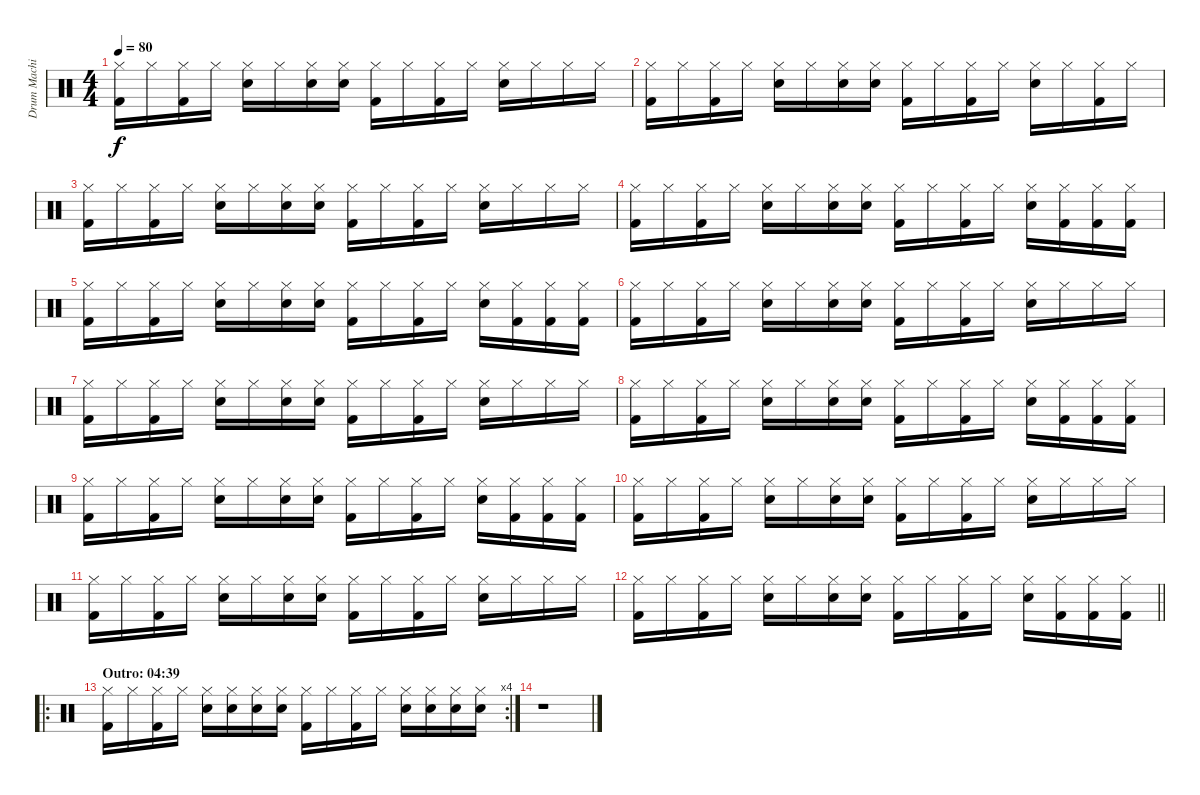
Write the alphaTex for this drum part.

\track ("Drum Machine" "Drum Machi") {instrument percussion}
\staff {score}
\articulation defaults
\ts (4 4)
\tempo 80
\clef neutral
\ks c
("Hi-Hat (closed)" "Kick (hit) 2").16{dy f} "Hi-Hat (closed)".16 ("Hi-Hat (closed)" "Kick (hit) 2").16 "Hi-Hat (closed)".16 ("Hi-Hat (closed)" "Electric Snare (hit)").16 "Hi-Hat (closed)".16 ("Hi-Hat (closed)" "Electric Snare (hit)").16 ("Hi-Hat (closed)" "Electric Snare (hit)").16 ("Hi-Hat (closed)" "Kick (hit) 2").16 "Hi-Hat (closed)".16 ("Hi-Hat (closed)" "Kick (hit) 2").16 "Hi-Hat (closed)".16 ("Hi-Hat (closed)" "Electric Snare (hit)").16 "Hi-Hat (closed)".16 "Hi-Hat (closed)".16 "Hi-Hat (closed)".16 |
("Hi-Hat (closed)" "Kick (hit) 2").16 "Hi-Hat (closed)".16 ("Hi-Hat (closed)" "Kick (hit) 2").16 "Hi-Hat (closed)".16 ("Hi-Hat (closed)" "Electric Snare (hit)").16 "Hi-Hat (closed)".16 ("Hi-Hat (closed)" "Electric Snare (hit)").16 ("Hi-Hat (closed)" "Electric Snare (hit)").16 ("Hi-Hat (closed)" "Kick (hit) 2").16 "Hi-Hat (closed)".16 ("Hi-Hat (closed)" "Kick (hit) 2").16 "Hi-Hat (closed)".16 ("Hi-Hat (closed)" "Electric Snare (hit)").16 "Hi-Hat (closed)".16 ("Hi-Hat (closed)" "Kick (hit) 2").16 "Hi-Hat (closed)".16 |
("Hi-Hat (closed)" "Kick (hit) 2").16 "Hi-Hat (closed)".16 ("Hi-Hat (closed)" "Kick (hit) 2").16 "Hi-Hat (closed)".16 ("Hi-Hat (closed)" "Electric Snare (hit)").16 "Hi-Hat (closed)".16 ("Hi-Hat (closed)" "Electric Snare (hit)").16 ("Hi-Hat (closed)" "Electric Snare (hit)").16 ("Hi-Hat (closed)" "Kick (hit) 2").16 "Hi-Hat (closed)".16 ("Hi-Hat (closed)" "Kick (hit) 2").16 "Hi-Hat (closed)".16 ("Hi-Hat (closed)" "Electric Snare (hit)").16 "Hi-Hat (closed)".16 "Hi-Hat (closed)".16 "Hi-Hat (closed)".16 |
("Hi-Hat (closed)" "Kick (hit) 2").16 "Hi-Hat (closed)".16 ("Hi-Hat (closed)" "Kick (hit) 2").16 "Hi-Hat (closed)".16 ("Hi-Hat (closed)" "Electric Snare (hit)").16 "Hi-Hat (closed)".16 ("Hi-Hat (closed)" "Electric Snare (hit)").16 ("Hi-Hat (closed)" "Electric Snare (hit)").16 ("Hi-Hat (closed)" "Kick (hit) 2").16 "Hi-Hat (closed)".16 ("Hi-Hat (closed)" "Kick (hit) 2").16 "Hi-Hat (closed)".16 ("Hi-Hat (closed)" "Electric Snare (hit)").16 ("Hi-Hat (closed)" "Kick (hit) 2").16 ("Hi-Hat (closed)" "Kick (hit) 2").16 ("Hi-Hat (closed)" "Kick (hit) 2").16 |
("Hi-Hat (closed)" "Kick (hit) 2").16 "Hi-Hat (closed)".16 ("Hi-Hat (closed)" "Kick (hit) 2").16 "Hi-Hat (closed)".16 ("Hi-Hat (closed)" "Electric Snare (hit)").16 "Hi-Hat (closed)".16 ("Hi-Hat (closed)" "Electric Snare (hit)").16 ("Hi-Hat (closed)" "Electric Snare (hit)").16 ("Hi-Hat (closed)" "Kick (hit) 2").16 "Hi-Hat (closed)".16 ("Hi-Hat (closed)" "Kick (hit) 2").16 "Hi-Hat (closed)".16 ("Hi-Hat (closed)" "Electric Snare (hit)").16 ("Hi-Hat (closed)" "Kick (hit) 2").16 ("Hi-Hat (closed)" "Kick (hit) 2").16 ("Hi-Hat (closed)" "Kick (hit) 2").16 |
("Hi-Hat (closed)" "Kick (hit) 2").16 "Hi-Hat (closed)".16 ("Hi-Hat (closed)" "Kick (hit) 2").16 "Hi-Hat (closed)".16 ("Hi-Hat (closed)" "Electric Snare (hit)").16 "Hi-Hat (closed)".16 ("Hi-Hat (closed)" "Electric Snare (hit)").16 ("Hi-Hat (closed)" "Electric Snare (hit)").16 ("Hi-Hat (closed)" "Kick (hit) 2").16 "Hi-Hat (closed)".16 ("Hi-Hat (closed)" "Kick (hit) 2").16 "Hi-Hat (closed)".16 ("Hi-Hat (closed)" "Electric Snare (hit)").16 "Hi-Hat (closed)".16 "Hi-Hat (closed)".16 "Hi-Hat (closed)".16 |
("Hi-Hat (closed)" "Kick (hit) 2").16 "Hi-Hat (closed)".16 ("Hi-Hat (closed)" "Kick (hit) 2").16 "Hi-Hat (closed)".16 ("Hi-Hat (closed)" "Electric Snare (hit)").16 "Hi-Hat (closed)".16 ("Hi-Hat (closed)" "Electric Snare (hit)").16 ("Hi-Hat (closed)" "Electric Snare (hit)").16 ("Hi-Hat (closed)" "Kick (hit) 2").16 "Hi-Hat (closed)".16 ("Hi-Hat (closed)" "Kick (hit) 2").16 "Hi-Hat (closed)".16 ("Hi-Hat (closed)" "Electric Snare (hit)").16 "Hi-Hat (closed)".16 "Hi-Hat (closed)".16 "Hi-Hat (closed)".16 |
("Hi-Hat (closed)" "Kick (hit) 2").16 "Hi-Hat (closed)".16 ("Hi-Hat (closed)" "Kick (hit) 2").16 "Hi-Hat (closed)".16 ("Hi-Hat (closed)" "Electric Snare (hit)").16 "Hi-Hat (closed)".16 ("Hi-Hat (closed)" "Electric Snare (hit)").16 ("Hi-Hat (closed)" "Electric Snare (hit)").16 ("Hi-Hat (closed)" "Kick (hit) 2").16 "Hi-Hat (closed)".16 ("Hi-Hat (closed)" "Kick (hit) 2").16 "Hi-Hat (closed)".16 ("Hi-Hat (closed)" "Electric Snare (hit)").16 ("Hi-Hat (closed)" "Kick (hit) 2").16 ("Hi-Hat (closed)" "Kick (hit) 2").16 ("Hi-Hat (closed)" "Kick (hit) 2").16 |
("Hi-Hat (closed)" "Kick (hit) 2").16 "Hi-Hat (closed)".16 ("Hi-Hat (closed)" "Kick (hit) 2").16 "Hi-Hat (closed)".16 ("Hi-Hat (closed)" "Electric Snare (hit)").16 "Hi-Hat (closed)".16 ("Hi-Hat (closed)" "Electric Snare (hit)").16 ("Hi-Hat (closed)" "Electric Snare (hit)").16 ("Hi-Hat (closed)" "Kick (hit) 2").16 "Hi-Hat (closed)".16 ("Hi-Hat (closed)" "Kick (hit) 2").16 "Hi-Hat (closed)".16 ("Hi-Hat (closed)" "Electric Snare (hit)").16 ("Hi-Hat (closed)" "Kick (hit) 2").16 ("Hi-Hat (closed)" "Kick (hit) 2").16 ("Hi-Hat (closed)" "Kick (hit) 2").16 |
("Hi-Hat (closed)" "Kick (hit) 2").16 "Hi-Hat (closed)".16 ("Hi-Hat (closed)" "Kick (hit) 2").16 "Hi-Hat (closed)".16 ("Hi-Hat (closed)" "Electric Snare (hit)").16 "Hi-Hat (closed)".16 ("Hi-Hat (closed)" "Electric Snare (hit)").16 ("Hi-Hat (closed)" "Electric Snare (hit)").16 ("Hi-Hat (closed)" "Kick (hit) 2").16 "Hi-Hat (closed)".16 ("Hi-Hat (closed)" "Kick (hit) 2").16 "Hi-Hat (closed)".16 ("Hi-Hat (closed)" "Electric Snare (hit)").16 "Hi-Hat (closed)".16 "Hi-Hat (closed)".16 "Hi-Hat (closed)".16 |
("Hi-Hat (closed)" "Kick (hit) 2").16 "Hi-Hat (closed)".16 ("Hi-Hat (closed)" "Kick (hit) 2").16 "Hi-Hat (closed)".16 ("Hi-Hat (closed)" "Electric Snare (hit)").16 "Hi-Hat (closed)".16 ("Hi-Hat (closed)" "Electric Snare (hit)").16 ("Hi-Hat (closed)" "Electric Snare (hit)").16 ("Hi-Hat (closed)" "Kick (hit) 2").16 "Hi-Hat (closed)".16 ("Hi-Hat (closed)" "Kick (hit) 2").16 "Hi-Hat (closed)".16 ("Hi-Hat (closed)" "Electric Snare (hit)").16 "Hi-Hat (closed)".16 "Hi-Hat (closed)".16 "Hi-Hat (closed)".16 |
\barLineRight lightlight
("Hi-Hat (closed)" "Kick (hit) 2").16 "Hi-Hat (closed)".16 ("Hi-Hat (closed)" "Kick (hit) 2").16 "Hi-Hat (closed)".16 ("Hi-Hat (closed)" "Electric Snare (hit)").16 "Hi-Hat (closed)".16 ("Hi-Hat (closed)" "Electric Snare (hit)").16 ("Hi-Hat (closed)" "Electric Snare (hit)").16 ("Hi-Hat (closed)" "Kick (hit) 2").16 "Hi-Hat (closed)".16 ("Hi-Hat (closed)" "Kick (hit) 2").16 "Hi-Hat (closed)".16 ("Hi-Hat (closed)" "Electric Snare (hit)").16 ("Hi-Hat (closed)" "Kick (hit) 2").16 ("Hi-Hat (closed)" "Kick (hit) 2").16 ("Hi-Hat (closed)" "Kick (hit) 2").16 |
\ro
\rc 4
\section ("" "Outro: 04:39")
("Hi-Hat (closed)" "Kick (hit) 2").16 "Hi-Hat (closed)".16 ("Hi-Hat (closed)" "Kick (hit) 2").16 "Hi-Hat (closed)".16 ("Hi-Hat (closed)" "Electric Snare (hit)").16 ("Hi-Hat (closed)" "Electric Snare (hit)").16 ("Hi-Hat (closed)" "Electric Snare (hit)").16 ("Hi-Hat (closed)" "Electric Snare (hit)").16 ("Hi-Hat (closed)" "Kick (hit) 2").16 "Hi-Hat (closed)".16 ("Hi-Hat (closed)" "Kick (hit) 2").16 "Hi-Hat (closed)".16 ("Hi-Hat (closed)" "Electric Snare (hit)").16 ("Hi-Hat (closed)" "Electric Snare (hit)").16 ("Hi-Hat (closed)" "Electric Snare (hit)").16 ("Hi-Hat (closed)" "Electric Snare (hit)").16 |
r.1
